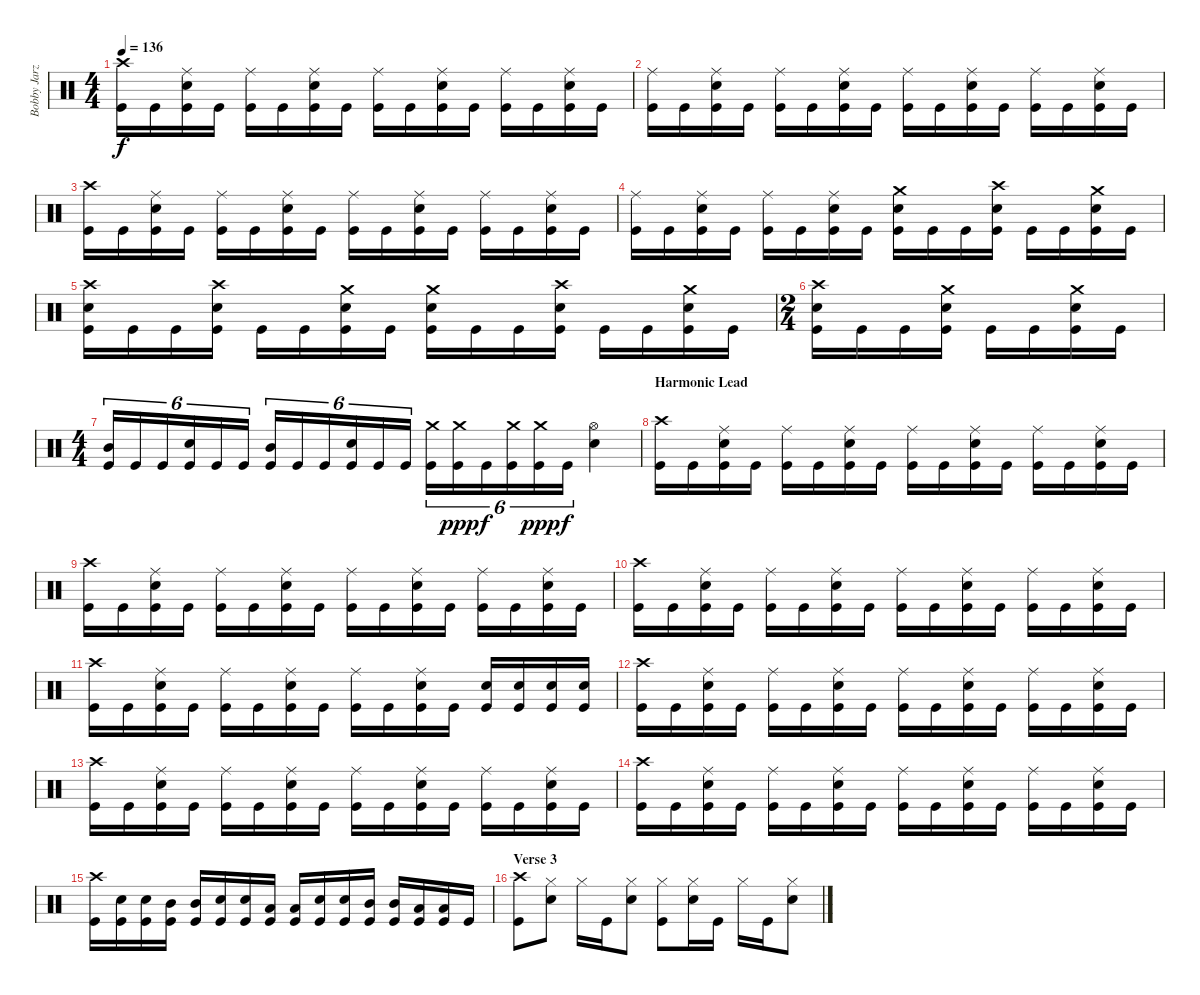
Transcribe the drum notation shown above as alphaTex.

\track ("Bobby Jarzombek" "Bobby Jarz") {instrument percussion}
\staff {score}
\articulation defaults
\ts (4 4)
\tempo 136
\clef neutral
\ks c
("Crash high (hit)" "Kick (hit)").16{dy f} "Kick (hit)".16 ("Ride (middle)" "Electric Snare (hit)" "Kick (hit)").16 "Kick (hit)".16 ("Ride (middle)" "Kick (hit)").16 "Kick (hit)".16 ("Ride (middle)" "Electric Snare (hit)" "Kick (hit)").16 "Kick (hit)".16 ("Ride (middle)" "Kick (hit)").16 "Kick (hit)".16 ("Ride (middle)" "Electric Snare (hit)" "Kick (hit)").16 "Kick (hit)".16 ("Ride (middle)" "Kick (hit)").16 "Kick (hit)".16 ("Ride (middle)" "Electric Snare (hit)" "Kick (hit)").16 "Kick (hit)".16 |
("Ride (middle)" "Kick (hit)").16 "Kick (hit)".16 ("Ride (middle)" "Electric Snare (hit)" "Kick (hit)").16 "Kick (hit)".16 ("Ride (middle)" "Kick (hit)").16 "Kick (hit)".16 ("Ride (middle)" "Electric Snare (hit)" "Kick (hit)").16 "Kick (hit)".16 ("Ride (middle)" "Kick (hit)").16 "Kick (hit)".16 ("Ride (middle)" "Electric Snare (hit)" "Kick (hit)").16 "Kick (hit)".16 ("Ride (middle)" "Kick (hit)").16 "Kick (hit)".16 ("Ride (middle)" "Electric Snare (hit)" "Kick (hit)").16 "Kick (hit)".16 |
("Crash high (hit)" "Kick (hit)").16 "Kick (hit)".16 ("Ride (middle)" "Electric Snare (hit)" "Kick (hit)").16 "Kick (hit)".16 ("Ride (middle)" "Kick (hit)").16 "Kick (hit)".16 ("Ride (middle)" "Electric Snare (hit)" "Kick (hit)").16 "Kick (hit)".16 ("Ride (middle)" "Kick (hit)").16 "Kick (hit)".16 ("Ride (middle)" "Electric Snare (hit)" "Kick (hit)").16 "Kick (hit)".16 ("Ride (middle)" "Kick (hit)").16 "Kick (hit)".16 ("Ride (middle)" "Electric Snare (hit)" "Kick (hit)").16 "Kick (hit)".16 |
("Ride (middle)" "Kick (hit)").16 "Kick (hit)".16 ("Ride (middle)" "Electric Snare (hit)" "Kick (hit)").16 "Kick (hit)".16 ("Ride (middle)" "Kick (hit)").16 "Kick (hit)".16 ("Ride (middle)" "Electric Snare (hit)" "Kick (hit)").16 "Kick (hit)".16 ("Crash medium (hit)" "Electric Snare (hit)" "Kick (hit)").16 "Kick (hit)".16 "Kick (hit)".16 ("Crash high (hit)" "Electric Snare (hit)" "Kick (hit)").16 "Kick (hit)".16 "Kick (hit)".16 ("Crash medium (hit)" "Electric Snare (hit)" "Kick (hit)").16 "Kick (hit)".16 |
("Crash high (hit)" "Electric Snare (hit)" "Kick (hit)").16 "Kick (hit)".16 "Kick (hit)".16 ("Crash high (hit)" "Electric Snare (hit)" "Kick (hit)").16 "Kick (hit)".16 "Kick (hit)".16 ("Crash medium (hit)" "Electric Snare (hit)" "Kick (hit)").16 "Kick (hit)".16 ("Crash medium (hit)" "Electric Snare (hit)" "Kick (hit)").16 "Kick (hit)".16 "Kick (hit)".16 ("Crash high (hit)" "Electric Snare (hit)" "Kick (hit)").16 "Kick (hit)".16 "Kick (hit)".16 ("Crash medium (hit)" "Electric Snare (hit)" "Kick (hit)").16 "Kick (hit)".16 |
\ts (2 4)
("Crash high (hit)" "Electric Snare (hit)" "Kick (hit)").16 "Kick (hit)".16 "Kick (hit)".16 ("Crash medium (hit)" "Electric Snare (hit)" "Kick (hit)").16 "Kick (hit)".16 "Kick (hit)".16 ("Crash medium (hit)" "Electric Snare (hit)" "Kick (hit)").16 "Kick (hit)".16 |
\ts (4 4)
("Mid Tom (hit)" "Kick (hit)").16{tu (6 4)} "Kick (hit)".16{tu (6 4)} "Kick (hit)".16{tu (6 4)} ("Electric Snare (hit)" "Kick (hit)").16{tu (6 4)} "Kick (hit)".16{tu (6 4)} "Kick (hit)".16{tu (6 4)} ("Mid Tom (hit)" "Kick (hit)").16{tu (6 4)} "Kick (hit)".16{tu (6 4)} "Kick (hit)".16{tu (6 4)} ("Electric Snare (hit)" "Kick (hit)").16{tu (6 4)} "Kick (hit)".16{tu (6 4)} "Kick (hit)".16{tu (6 4)} ("Crash medium (hit)" "Kick (hit)").16{tu (6 4)} ("Crash medium (hit)" "Kick (hit)").16{tu (6 4) dy ppp} "Kick (hit)".16{tu (6 4) dy f} ("Crash medium (hit)" "Kick (hit)").16{tu (6 4)} ("Crash medium (hit)" "Kick (hit)").16{tu (6 4) dy ppp} "Kick (hit)".16{tu (6 4) dy f} ("Hi-Hat (open)" "Electric Snare (hit)").4 |
\section ("" "Harmonic Lead")
("Crash high (hit)" "Kick (hit)").16 "Kick (hit)".16 ("Ride (middle)" "Electric Snare (hit)" "Kick (hit)").16 "Kick (hit)".16 ("Ride (middle)" "Kick (hit)").16 "Kick (hit)".16 ("Ride (middle)" "Electric Snare (hit)" "Kick (hit)").16 "Kick (hit)".16 ("Ride (middle)" "Kick (hit)").16 "Kick (hit)".16 ("Ride (middle)" "Electric Snare (hit)" "Kick (hit)").16 "Kick (hit)".16 ("Ride (middle)" "Kick (hit)").16 "Kick (hit)".16 ("Ride (middle)" "Electric Snare (hit)" "Kick (hit)").16 "Kick (hit)".16 |
("Crash high (hit)" "Kick (hit)").16 "Kick (hit)".16 ("Ride (middle)" "Electric Snare (hit)" "Kick (hit)").16 "Kick (hit)".16 ("Ride (middle)" "Kick (hit)").16 "Kick (hit)".16 ("Ride (middle)" "Electric Snare (hit)" "Kick (hit)").16 "Kick (hit)".16 ("Ride (middle)" "Kick (hit)").16 "Kick (hit)".16 ("Ride (middle)" "Electric Snare (hit)" "Kick (hit)").16 "Kick (hit)".16 ("Ride (middle)" "Kick (hit)").16 "Kick (hit)".16 ("Ride (middle)" "Electric Snare (hit)" "Kick (hit)").16 "Kick (hit)".16 |
("Crash high (hit)" "Kick (hit)").16 "Kick (hit)".16 ("Ride (middle)" "Electric Snare (hit)" "Kick (hit)").16 "Kick (hit)".16 ("Ride (middle)" "Kick (hit)").16 "Kick (hit)".16 ("Ride (middle)" "Electric Snare (hit)" "Kick (hit)").16 "Kick (hit)".16 ("Ride (middle)" "Kick (hit)").16 "Kick (hit)".16 ("Ride (middle)" "Electric Snare (hit)" "Kick (hit)").16 "Kick (hit)".16 ("Ride (middle)" "Kick (hit)").16 "Kick (hit)".16 ("Ride (middle)" "Electric Snare (hit)" "Kick (hit)").16 "Kick (hit)".16 |
("Crash high (hit)" "Kick (hit)").16 "Kick (hit)".16 ("Ride (middle)" "Electric Snare (hit)" "Kick (hit)").16 "Kick (hit)".16 ("Ride (middle)" "Kick (hit)").16 "Kick (hit)".16 ("Ride (middle)" "Electric Snare (hit)" "Kick (hit)").16 "Kick (hit)".16 ("Ride (middle)" "Kick (hit)").16 "Kick (hit)".16 ("Ride (middle)" "Electric Snare (hit)" "Kick (hit)").16 "Kick (hit)".16 ("Electric Snare (hit)" "Kick (hit)").16 ("Electric Snare (hit)" "Kick (hit)").16 ("Electric Snare (hit)" "Kick (hit)").16 ("Electric Snare (hit)" "Kick (hit)").16 |
("Crash high (hit)" "Kick (hit)").16 "Kick (hit)".16 ("Ride (middle)" "Electric Snare (hit)" "Kick (hit)").16 "Kick (hit)".16 ("Ride (middle)" "Kick (hit)").16 "Kick (hit)".16 ("Ride (middle)" "Electric Snare (hit)" "Kick (hit)").16 "Kick (hit)".16 ("Ride (middle)" "Kick (hit)").16 "Kick (hit)".16 ("Ride (middle)" "Electric Snare (hit)" "Kick (hit)").16 "Kick (hit)".16 ("Ride (middle)" "Kick (hit)").16 "Kick (hit)".16 ("Ride (middle)" "Electric Snare (hit)" "Kick (hit)").16 "Kick (hit)".16 |
("Crash high (hit)" "Kick (hit)").16 "Kick (hit)".16 ("Ride (middle)" "Electric Snare (hit)" "Kick (hit)").16 "Kick (hit)".16 ("Ride (middle)" "Kick (hit)").16 "Kick (hit)".16 ("Ride (middle)" "Electric Snare (hit)" "Kick (hit)").16 "Kick (hit)".16 ("Ride (middle)" "Kick (hit)").16 "Kick (hit)".16 ("Ride (middle)" "Electric Snare (hit)" "Kick (hit)").16 "Kick (hit)".16 ("Ride (middle)" "Kick (hit)").16 "Kick (hit)".16 ("Ride (middle)" "Electric Snare (hit)" "Kick (hit)").16 "Kick (hit)".16 |
("Crash high (hit)" "Kick (hit)").16 "Kick (hit)".16 ("Ride (middle)" "Electric Snare (hit)" "Kick (hit)").16 "Kick (hit)".16 ("Ride (middle)" "Kick (hit)").16 "Kick (hit)".16 ("Ride (middle)" "Electric Snare (hit)" "Kick (hit)").16 "Kick (hit)".16 ("Ride (middle)" "Kick (hit)").16 "Kick (hit)".16 ("Ride (middle)" "Electric Snare (hit)" "Kick (hit)").16 "Kick (hit)".16 ("Ride (middle)" "Kick (hit)").16 "Kick (hit)".16 ("Ride (middle)" "Electric Snare (hit)" "Kick (hit)").16 "Kick (hit)".16 |
("Crash high (hit)" "Kick (hit)").16 ("Electric Snare (hit)" "Kick (hit)").16 ("Electric Snare (hit)" "Kick (hit)").16 ("Mid Tom (hit)" "Kick (hit)").16 ("Mid Tom (hit)" "Kick (hit)").16 ("Electric Snare (hit)" "Kick (hit)").16 ("Electric Snare (hit)" "Kick (hit)").16 ("Low Tom (hit)" "Kick (hit)").16 ("Low Tom (hit)" "Kick (hit)").16 ("Electric Snare (hit)" "Kick (hit)").16 ("Electric Snare (hit)" "Kick (hit)").16 ("Mid Tom (hit)" "Kick (hit)").16 ("Mid Tom (hit)" "Kick (hit)").16 ("Low Tom (hit)" "Kick (hit)").16 ("Low Tom (hit)" "Kick (hit)").16 "Kick (hit)".16 |
\section ("" "Verse 3")
("Crash high (hit)" "Kick (hit)").8 ("Hi-Hat (closed)" "Electric Snare (hit)").8 "Hi-Hat (closed)".16 "Kick (hit)".16 ("Hi-Hat (closed)" "Electric Snare (hit)").8 ("Hi-Hat (closed)" "Kick (hit)").8 ("Hi-Hat (closed)" "Electric Snare (hit)").16 "Kick (hit)".16 "Hi-Hat (closed)".16 "Kick (hit)".16 ("Hi-Hat (closed)" "Electric Snare (hit)").8
